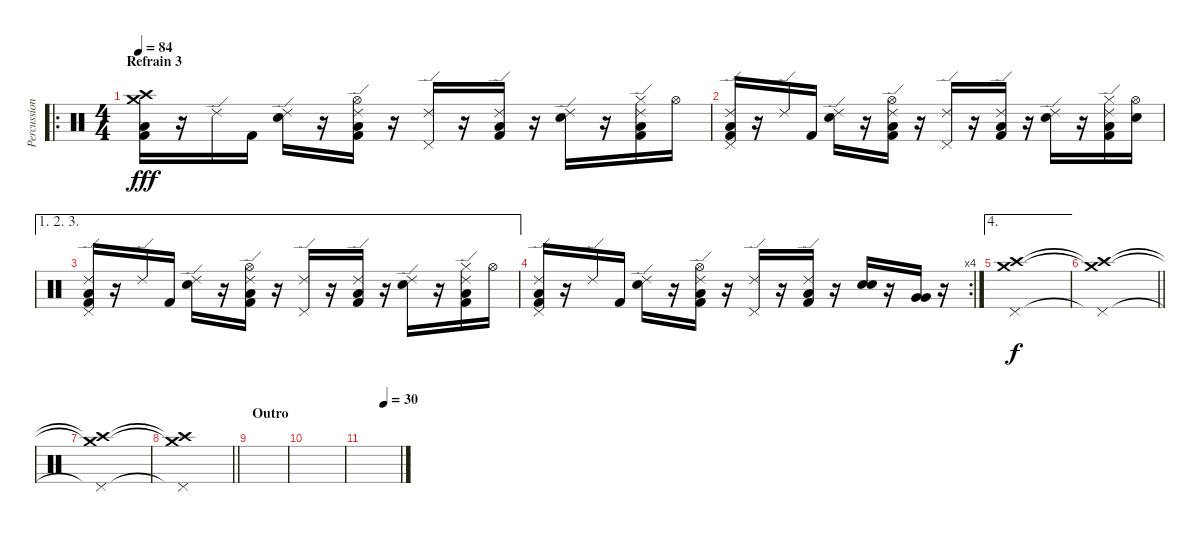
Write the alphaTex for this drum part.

\track ("Percussions" "Percussion") {instrument percussion}
\staff {score}
\articulation defaults
\ro
\ts (4 4)
\section ("" "Refrain 3")
\tempo 84
\clef neutral
\ks c
("Crash medium (hit)" "Crash high (hit)" "Low Floor Tom (hit)" "Kick (hit) 2").16{dy fff} r.16 "Ride (edge) 2".16 "Kick (hit) 2".16 ("Ride (edge) 2" "Electric Snare (hit)").16 r.16 ("Ride (edge) 2" "Hi-Hat (open)" "Low Floor Tom (hit)" "Kick (hit) 2").16 r.16 ("Ride (edge) 2" "Pedal Hi-Hat (hit)").16 r.16 ("Ride (edge) 2" "Low Floor Tom (hit)" "Kick (hit) 2").16 r.16 ("Ride (edge) 2" "Electric Snare (hit)").16 r.16 ("Ride (edge) 2" "Hi-Hat (closed)" "Low Floor Tom (hit)" "Kick (hit) 2").16 "Hi-Hat (open)".16 |
("Ride (edge) 2" "Pedal Hi-Hat (hit)" "Low Floor Tom (hit)" "Kick (hit) 2").16 r.16 "Ride (edge) 2".16 "Kick (hit) 2".16 ("Ride (edge) 2" "Electric Snare (hit)").16 r.16 ("Ride (edge) 2" "Hi-Hat (open)" "Low Floor Tom (hit)" "Kick (hit) 2").16 r.16 ("Ride (edge) 2" "Pedal Hi-Hat (hit)").16 r.16 ("Ride (edge) 2" "Low Floor Tom (hit)" "Kick (hit) 2").16 r.16 ("Ride (edge) 2" "Electric Snare (hit)").16 r.16 ("Ride (edge) 2" "Hi-Hat (closed)" "Low Floor Tom (hit)" "Kick (hit) 2").16 ("Hi-Hat (open)" "Electric Snare (hit)").16 |
\ae (1 2 3)
("Ride (edge) 2" "Pedal Hi-Hat (hit)" "Low Floor Tom (hit)" "Kick (hit) 2").16 r.16 "Ride (edge) 2".16 "Kick (hit) 2".16 ("Ride (edge) 2" "Electric Snare (hit)").16 r.16 ("Ride (edge) 2" "Hi-Hat (open)" "Low Floor Tom (hit)" "Kick (hit) 2").16 r.16 ("Ride (edge) 2" "Pedal Hi-Hat (hit)").16 r.16 ("Ride (edge) 2" "Low Floor Tom (hit)" "Kick (hit) 2").16 r.16 ("Ride (edge) 2" "Electric Snare (hit)").16 r.16 ("Ride (edge) 2" "Hi-Hat (closed)" "Low Floor Tom (hit)" "Kick (hit) 2").16 "Hi-Hat (open)".16 |
\rc 4
("Ride (edge) 2" "Pedal Hi-Hat (hit)" "Low Floor Tom (hit)" "Kick (hit) 2").16 r.16 "Ride (edge) 2".16 "Kick (hit) 2".16 ("Ride (edge) 2" "Electric Snare (hit)").16 r.16 ("Ride (edge) 2" "Hi-Hat (open)" "Low Floor Tom (hit)" "Kick (hit) 2").16 r.16 ("Ride (edge) 2" "Pedal Hi-Hat (hit)").16 r.16 ("Ride (edge) 2" "Low Floor Tom (hit)" "Kick (hit) 2").16 r.16 ("Electric Snare (hit)" "Electric Snare (hit)").16 r.16 ("Very Low Tom (hit)" "Very Low Tom (hit)").16 r.16 |
\ae 4
("Pedal Hi-Hat (hit)" "Crash high (hit)" "Crash medium (hit)").1{dy f} |
\barLineRight lightlight
("Pedal Hi-Hat (hit)"{t} "Crash high (hit)"{t} "Crash medium (hit)"{t}).1 |
("Pedal Hi-Hat (hit)"{t} "Crash high (hit)"{t} "Crash medium (hit)"{t}).1 |
\barLineRight lightlight
("Pedal Hi-Hat (hit)"{t} "Crash high (hit)"{t} "Crash medium (hit)"{t}).1 |
\section ("" "Outro")
|
|
\tempo (30 0.5625)
